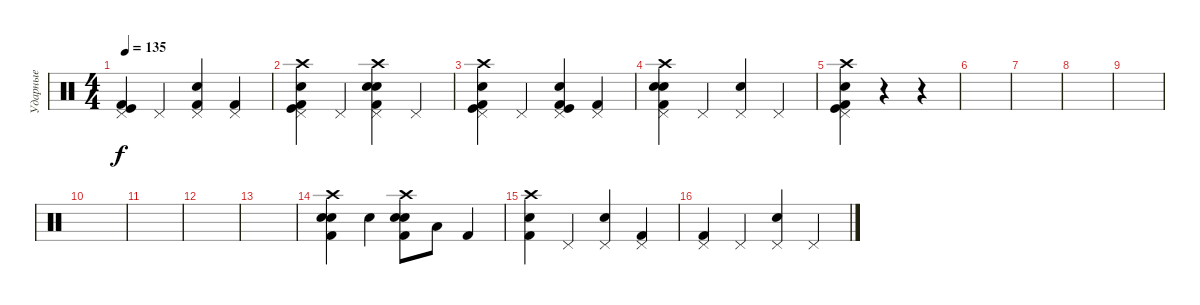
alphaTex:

\track ("Ударные" "Ударные") {instrument percussion}
\staff {score}
\articulation defaults
\ts (4 4)
\tempo 135
\clef neutral
\ks c
("Pedal Hi-Hat (hit)" "Kick (hit) 2" "Kick (hit)").4{dy f} "Pedal Hi-Hat (hit)".4 ("Pedal Hi-Hat (hit)" "Electric Snare (hit)" "Kick (hit) 2").4 ("Pedal Hi-Hat (hit)" "Kick (hit) 2").4 |
("Snare (hit) 2" "Crash high (hit)" "Kick (hit) 2" "Kick (hit)" "Pedal Hi-Hat (hit)").4 "Pedal Hi-Hat (hit)".4 ("Snare (hit) 2" "Crash high (hit)" "Electric Snare (hit)" "Pedal Hi-Hat (hit)" "Kick (hit) 2").4 "Pedal Hi-Hat (hit)".4 |
("Pedal Hi-Hat (hit)" "Kick (hit)" "Crash high (hit)" "Snare (hit) 2" "Kick (hit) 2").4 "Pedal Hi-Hat (hit)".4 ("Kick (hit)" "Pedal Hi-Hat (hit)" "Electric Snare (hit)" "Kick (hit) 2").4 ("Pedal Hi-Hat (hit)" "Kick (hit) 2").4 |
("Crash high (hit)" "Pedal Hi-Hat (hit)" "Kick (hit) 2" "Snare (hit) 2" "Electric Snare (hit)").4 "Pedal Hi-Hat (hit)".4 ("Pedal Hi-Hat (hit)" "Electric Snare (hit)").4 "Pedal Hi-Hat (hit)".4 |
("Pedal Hi-Hat (hit)" "Kick (hit)" "Crash high (hit)" "Snare (hit) 2" "Kick (hit) 2").4 r.4 r.4 |
|
|
|
|
|
|
|
|
("Kick (hit) 2" "Snare (hit) 2" "Crash high (hit)" "Electric Snare (hit)").4 "Electric Snare (hit)".4 ("Kick (hit) 2" "Snare (hit) 2" "Crash high (hit)" "Electric Snare (hit)").8 "Low Tom (hit)".8 "Kick (hit) 2".4 |
("Kick (hit) 2" "Snare (hit) 2" "Crash high (hit)").4 "Pedal Hi-Hat (hit)".4 ("Electric Snare (hit)" "Pedal Hi-Hat (hit)").4 ("Kick (hit) 2" "Pedal Hi-Hat (hit)").4 |
("Pedal Hi-Hat (hit)" "Kick (hit) 2").4 "Pedal Hi-Hat (hit)".4 ("Pedal Hi-Hat (hit)" "Electric Snare (hit)").4 "Pedal Hi-Hat (hit)".4
